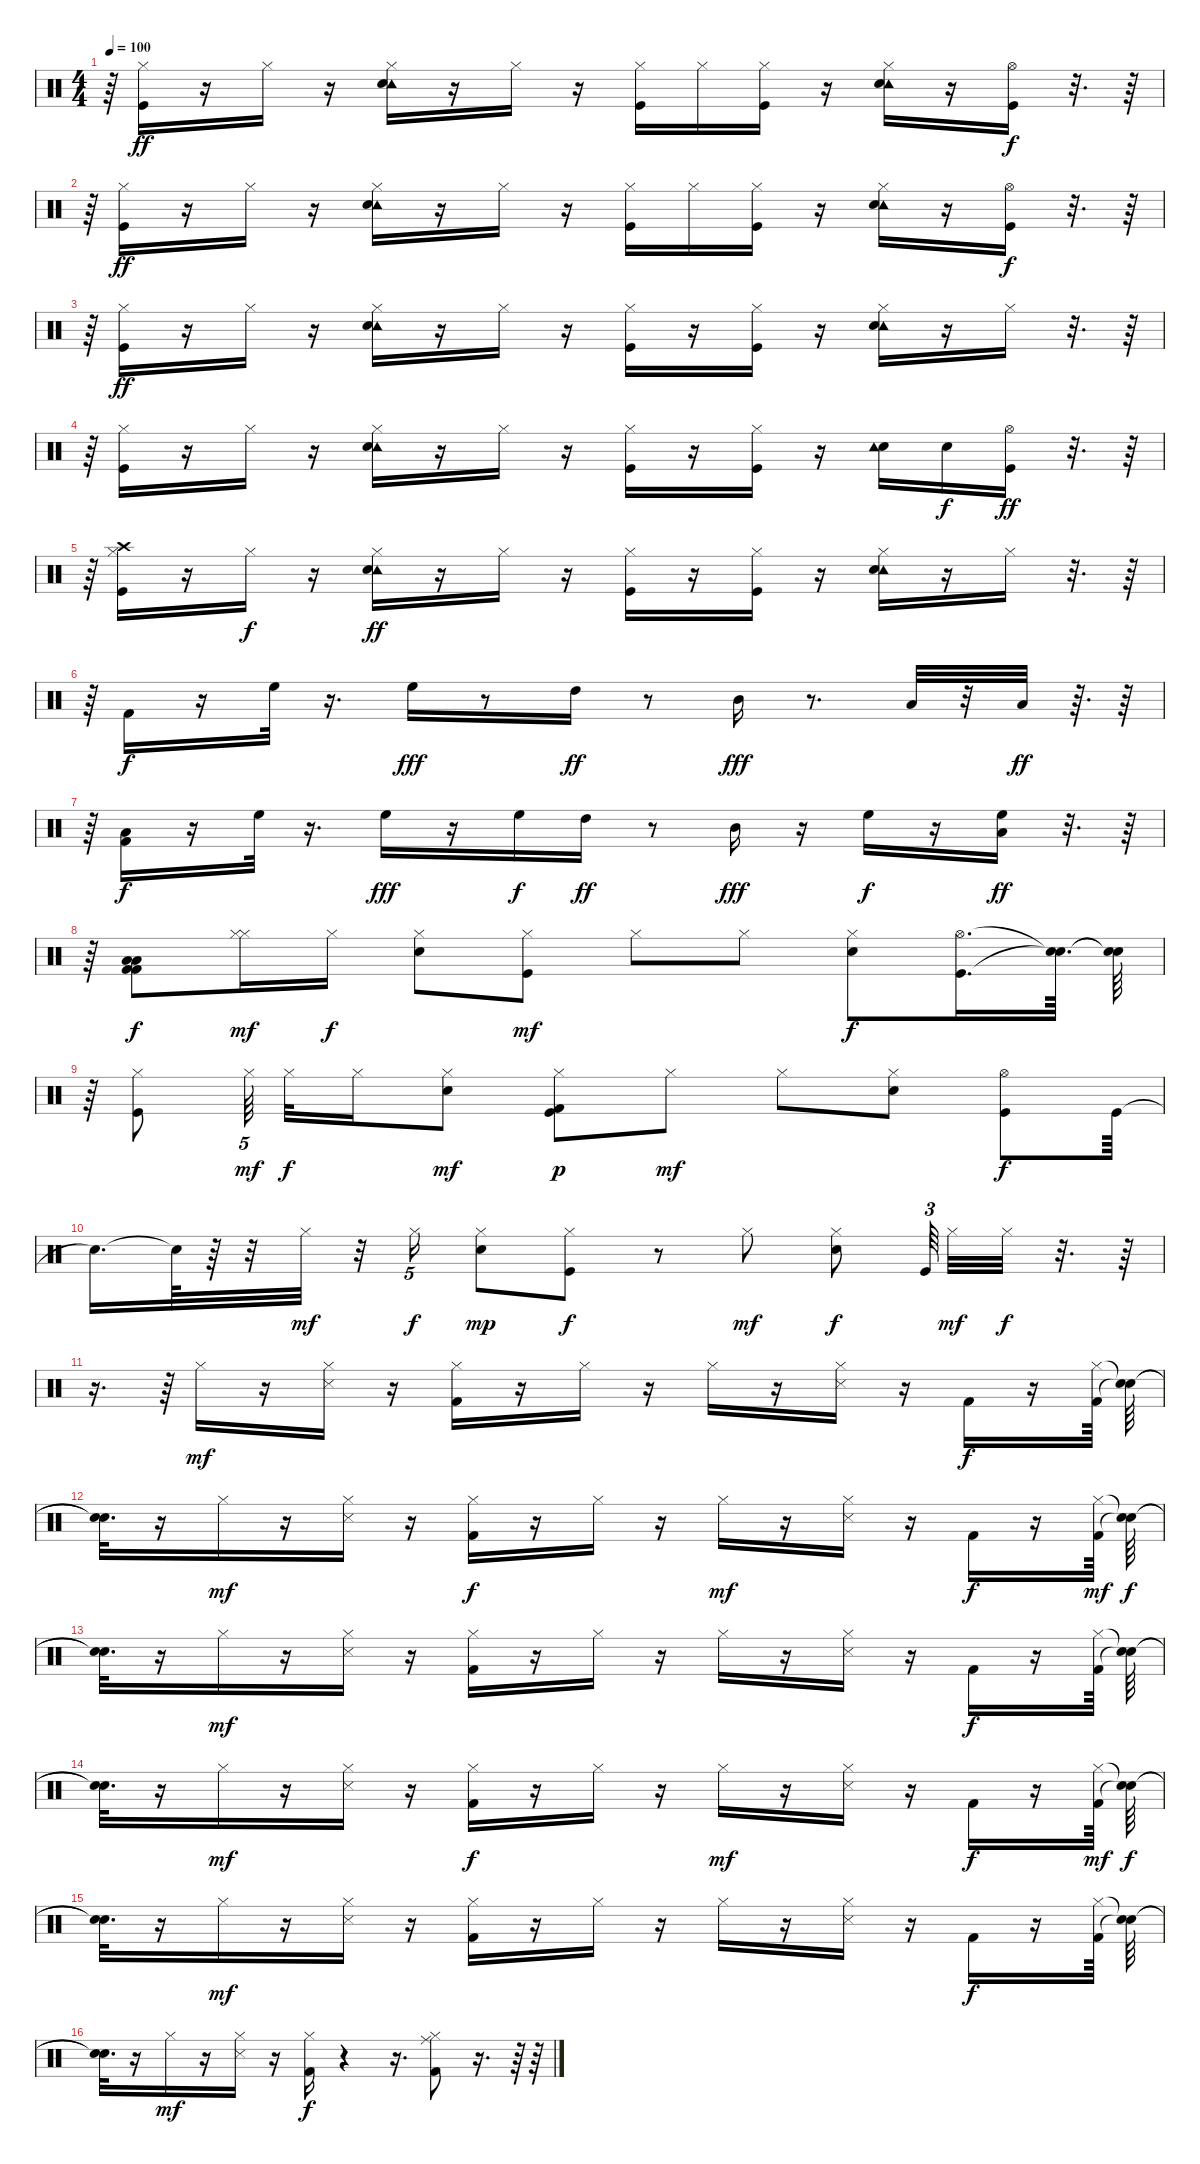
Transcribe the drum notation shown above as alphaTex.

\track "" {instrument percussion}
\staff {score}
\articulation defaults
\ts (4 4)
\tempo 100
\clef neutral
\ks c
r.64{dy f} ("Hi-Hat (closed)" "Kick (hit)").16{dy ff} r.16 "Hi-Hat (closed)".16 r.16 ("Hi-Hat (closed)" "Tambourine (hit)" "Electric Snare (hit)").16 r.16 "Hi-Hat (closed)".16 r.16 ("Hi-Hat (closed)" "Kick (hit)").16 "Hi-Hat (closed)".16 ("Hi-Hat (closed)" "Kick (hit)").16 r.16 ("Hi-Hat (closed)" "Tambourine (hit)" "Electric Snare (hit)").16 r.16 ("Hi-Hat (open)" "Kick (hit)").16{dy f} r.32{d} r.64 |
r.64 ("Hi-Hat (closed)" "Kick (hit)").16{dy ff} r.16 "Hi-Hat (closed)".16 r.16 ("Hi-Hat (closed)" "Tambourine (hit)" "Electric Snare (hit)").16 r.16 "Hi-Hat (closed)".16 r.16 ("Hi-Hat (closed)" "Kick (hit)").16 "Hi-Hat (closed)".16 ("Hi-Hat (closed)" "Kick (hit)").16 r.16 ("Hi-Hat (closed)" "Tambourine (hit)" "Electric Snare (hit)").16 r.16 ("Hi-Hat (open)" "Kick (hit)").16{dy f} r.32{d} r.64 |
r.64 ("Hi-Hat (closed)" "Kick (hit)").16{dy ff} r.16 "Hi-Hat (closed)".16 r.16 ("Hi-Hat (closed)" "Tambourine (hit)" "Electric Snare (hit)").16 r.16 "Hi-Hat (closed)".16 r.16 ("Hi-Hat (closed)" "Kick (hit)").16 r.16 ("Hi-Hat (closed)" "Kick (hit)").16 r.16 ("Hi-Hat (closed)" "Tambourine (hit)" "Electric Snare (hit)").16 r.16 "Hi-Hat (closed)".16 r.32{d} r.64 |
r.64 ("Hi-Hat (closed)" "Kick (hit)").16 r.16 "Hi-Hat (closed)".16 r.16 ("Hi-Hat (closed)" "Tambourine (hit)" "Electric Snare (hit)").16 r.16 "Hi-Hat (closed)".16 r.16 ("Hi-Hat (closed)" "Kick (hit)").16 r.16 ("Hi-Hat (closed)" "Kick (hit)").16 r.16 ("Electric Snare (hit)" "Tambourine (hit)").16 "Electric Snare (hit)".16{dy f} ("Hi-Hat (open)" "Kick (hit)").16{dy ff} r.32{d} r.64 |
r.64 ("Crash high (hit)" "Hi-Hat (closed)" "Kick (hit)").16 r.16 "Hi-Hat (closed)".16{dy f} r.16 ("Hi-Hat (closed)" "Tambourine (hit)" "Electric Snare (hit)").16{dy ff} r.16 "Hi-Hat (closed)".16 r.16 ("Hi-Hat (closed)" "Kick (hit)").16 r.16 ("Hi-Hat (closed)" "Kick (hit)").16 r.16 ("Hi-Hat (closed)" "Tambourine (hit)" "Electric Snare (hit)").16 r.16 "Hi-Hat (closed)".16 r.32{d} r.64 |
r.64 "Kick (hit) 2".16{dy f} r.16 "High Floor Tom (hit)".32 r.16{d} "High Floor Tom (hit)".16{dy fff} r.8 "High Tom (hit)".16{dy ff} r.8 "Mid Tom (hit)".16{dy fff} r.8{d} "Low Tom (hit)".32 r.32 "Low Tom (hit)".32{dy ff} r.64{d} r.64 |
r.64 ("Low Floor Tom (hit)" "Kick (hit) 2").16{dy f} r.16 "High Floor Tom (hit)".32 r.16{d} "High Floor Tom (hit)".16{dy fff} r.16 "High Floor Tom (hit)".16{dy f} "High Tom (hit)".16{dy ff} r.8 "Mid Tom (hit)".16{dy fff} r.16 "High Floor Tom (hit)".16{dy f} r.16 ("High Floor Tom (hit)" "Low Tom (hit)").16{dy ff} r.32{d} r.64 |
r.64 ("Low Floor Tom (hit)" "Kick (hit) 2" "Kick (hit) 2" "Low Tom (hit)").8{dy f} ("Hi-Hat (closed)" "Hi-Hat (closed)").16{dy mf} "Hi-Hat (closed)".16{dy f} ("Hi-Hat (closed)" "Snare (hit) 2").8 ("Kick (hit)" "Hi-Hat (closed)").8{dy mf} "Hi-Hat (closed)".8 "Hi-Hat (closed)".8 ("Snare (hit) 2" "Hi-Hat (closed)").8{dy f} ("Kick (hit)" "Hi-Hat (open)").16{d} ("Snare (hit)"{t} "Snare (hit)"{t}).64{d} ("Snare (hit)"{t} "Snare (hit)"{t}).64 |
r.64 ("Kick (hit)" "Hi-Hat (closed)").8 "Hi-Hat (closed)".64{tu (5 4) dy mf beam splitsecondary} "Hi-Hat (closed)".32{dy f} "Hi-Hat (closed)".16 ("Snare (hit) 2" "Hi-Hat (closed)").8{dy mf} ("Kick (hit)" "Hi-Hat (closed)" "Kick (hit) 2").8{dy p} "Hi-Hat (closed)".8{dy mf} "Hi-Hat (closed)".8 ("Snare (hit) 2" "Hi-Hat (closed)").8 ("Hi-Hat (open)" "Kick (hit)").8{dy f} "Kick (hit)".64 |
"Snare (hit)"{t}.16{d} "Snare (hit)"{t}.64 r.64 r.32 "Hi-Hat (closed)".32{dy mf} r.32 "Hi-Hat (closed)".16{tu (5 4) dy f} ("Hi-Hat (closed)" "Snare (hit) 2").8{dy mp} ("Kick (hit)" "Hi-Hat (closed)").8{dy f} r.8 "Hi-Hat (closed)".8{dy mf} ("Snare (hit) 2" "Hi-Hat (closed)").8{dy f} "Kick (hit)".64{tu (3 2) beam splitsecondary} "Hi-Hat (closed)".32{dy mf} "Hi-Hat (closed)".32{dy f} r.32{d} r.64 |
r.16{d} r.64 "Hi-Hat (closed)".16{dy mf} r.16 ("Hi-Hat (closed)" "Snare (side stick) 3").16 r.16 ("Kick (hit) 2" "Hi-Hat (closed)").16 r.16 "Hi-Hat (closed)".16 r.16 "Hi-Hat (closed)".16 r.16 ("Hi-Hat (closed)" "Snare (side stick) 3").16 r.16 "Kick (hit) 2".16{dy f} r.16 ("Hi-Hat (closed)" "Kick (hit) 2").64 ("Snare (hit)"{t} "Snare (hit)"{t}).64 |
("Snare (hit)"{t} "Snare (hit)"{t}).32{d} r.16 "Hi-Hat (closed)".16{dy mf} r.16 ("Hi-Hat (closed)" "Snare (side stick) 3").16 r.16 ("Kick (hit) 2" "Hi-Hat (closed)").16{dy f} r.16 "Hi-Hat (closed)".16 r.16 "Hi-Hat (closed)".16{dy mf} r.16 ("Hi-Hat (closed)" "Snare (side stick) 3").16 r.16 "Kick (hit) 2".16{dy f} r.16 ("Kick (hit) 2" "Hi-Hat (closed)").64{dy mf} ("Snare (hit)"{t} "Snare (hit)"{t}).64{dy f} |
("Snare (hit)"{t} "Snare (hit)"{t}).32{d} r.16 "Hi-Hat (closed)".16{dy mf} r.16 ("Hi-Hat (closed)" "Snare (side stick) 3").16 r.16 ("Kick (hit) 2" "Hi-Hat (closed)").16 r.16 "Hi-Hat (closed)".16 r.16 "Hi-Hat (closed)".16 r.16 ("Hi-Hat (closed)" "Snare (side stick) 3").16 r.16 "Kick (hit) 2".16{dy f} r.16 ("Hi-Hat (closed)" "Kick (hit) 2").64 ("Snare (hit)"{t} "Snare (hit)"{t}).64 |
("Snare (hit)"{t} "Snare (hit)"{t}).32{d} r.16 "Hi-Hat (closed)".16{dy mf} r.16 ("Hi-Hat (closed)" "Snare (side stick) 3").16 r.16 ("Kick (hit) 2" "Hi-Hat (closed)").16{dy f} r.16 "Hi-Hat (closed)".16 r.16 "Hi-Hat (closed)".16{dy mf} r.16 ("Hi-Hat (closed)" "Snare (side stick) 3").16 r.16 "Kick (hit) 2".16{dy f} r.16 ("Kick (hit) 2" "Hi-Hat (closed)").64{dy mf} ("Snare (hit)"{t} "Snare (hit)"{t}).64{dy f} |
("Snare (hit)"{t} "Snare (hit)"{t}).32{d} r.16 "Hi-Hat (closed)".16{dy mf} r.16 ("Hi-Hat (closed)" "Snare (side stick) 3").16 r.16 ("Kick (hit) 2" "Hi-Hat (closed)").16 r.16 "Hi-Hat (closed)".16 r.16 "Hi-Hat (closed)".16 r.16 ("Hi-Hat (closed)" "Snare (side stick) 3").16 r.16 "Kick (hit) 2".16{dy f} r.16 ("Hi-Hat (closed)" "Kick (hit) 2").64 ("Snare (hit)"{t} "Snare (hit)"{t}).64 |
("Snare (hit)"{t} "Snare (hit)"{t}).32{d} r.16 "Hi-Hat (closed)".16{dy mf} r.16 ("Hi-Hat (closed)" "Snare (side stick) 3").16 r.16 ("Kick (hit) 2" "Hi-Hat (closed)").16{dy f} r.4 r.16{d} ("Ride (middle)" "Hi-Hat (closed)" "Kick (hit) 2").8 r.16{d} r.64 r.64
